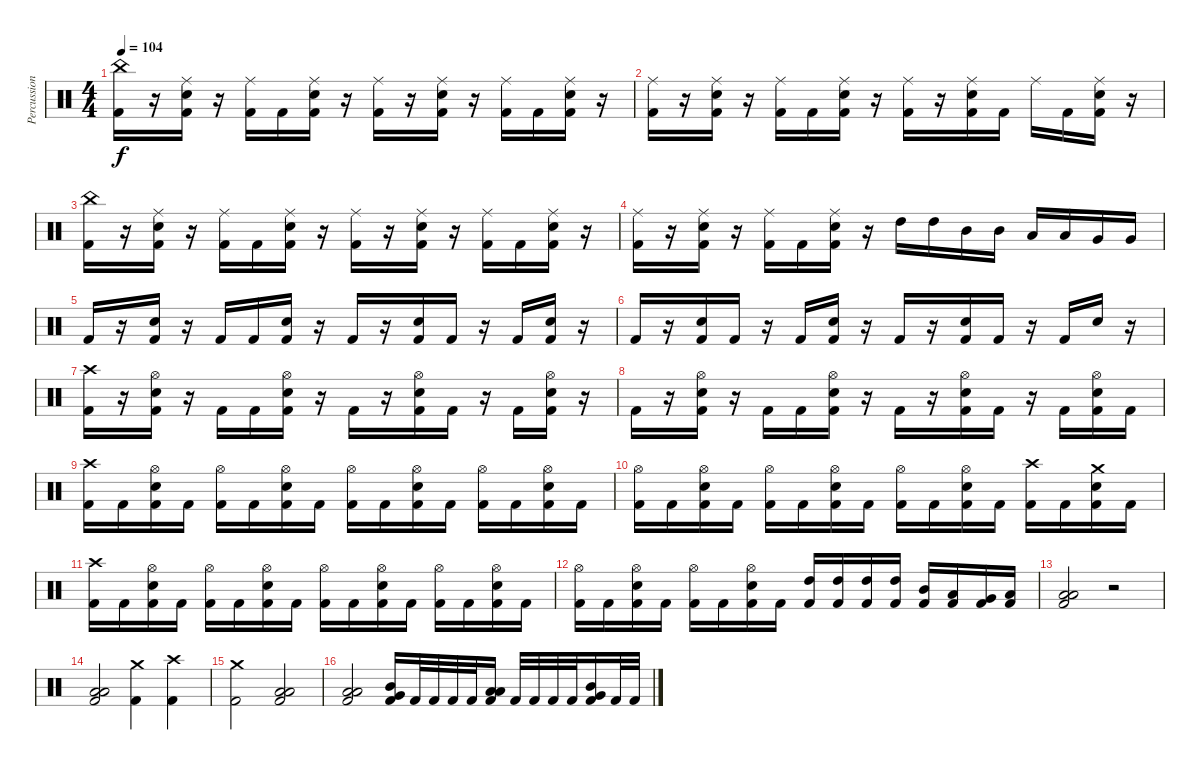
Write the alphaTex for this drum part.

\track ("Percussion" "Percussion") {instrument percussion}
\staff {score}
\articulation defaults
\ts (4 4)
\tempo 104
\clef neutral
\ks c
("China (hit)" "Kick (hit) 2").16{dy f} r.16 ("Ride (middle)" "Snare (hit) 2" "Kick (hit) 2").16 r.16 ("Ride (middle)" "Kick (hit) 2").16 "Kick (hit) 2".16 ("Ride (middle)" "Snare (hit) 2" "Kick (hit) 2").16 r.16 ("Ride (middle)" "Kick (hit) 2").16 r.16 ("Ride (middle)" "Snare (hit) 2" "Kick (hit) 2").16 r.16 ("Ride (middle)" "Kick (hit) 2").16 "Kick (hit) 2".16 ("Ride (middle)" "Snare (hit) 2" "Kick (hit) 2").16 r.16 |
("Ride (middle)" "Kick (hit) 2").16 r.16 ("Ride (middle)" "Snare (hit) 2" "Kick (hit) 2").16 r.16 ("Ride (middle)" "Kick (hit) 2").16 "Kick (hit) 2".16 ("Ride (middle)" "Snare (hit) 2" "Kick (hit) 2").16 r.16 ("Ride (middle)" "Kick (hit) 2").16 r.16 ("Ride (middle)" "Snare (hit) 2" "Kick (hit) 2").16 "Kick (hit) 2".16 "Ride (middle)".16 "Kick (hit) 2".16 ("Ride (middle)" "Snare (hit) 2" "Kick (hit) 2").16 r.16 |
("China (hit)" "Kick (hit) 2").16 r.16 ("Ride (middle)" "Snare (hit) 2" "Kick (hit) 2").16 r.16 ("Ride (middle)" "Kick (hit) 2").16 "Kick (hit) 2".16 ("Ride (middle)" "Snare (hit) 2" "Kick (hit) 2").16 r.16 ("Ride (middle)" "Kick (hit) 2").16 r.16 ("Ride (middle)" "Snare (hit) 2" "Kick (hit) 2").16 r.16 ("Ride (middle)" "Kick (hit) 2").16 "Kick (hit) 2".16 ("Ride (middle)" "Snare (hit) 2" "Kick (hit) 2").16 r.16 |
("Ride (middle)" "Kick (hit) 2").16 r.16 ("Ride (middle)" "Snare (hit) 2" "Kick (hit) 2").16 r.16 ("Ride (middle)" "Kick (hit) 2").16 "Kick (hit) 2".16 ("Ride (middle)" "Snare (hit) 2" "Kick (hit) 2").16 r.16 "High Tom (hit)".16 "High Tom (hit)".16 "Mid Tom (hit)".16 "Mid Tom (hit)".16 "Low Tom (hit)".16 "Low Tom (hit)".16 "Very Low Tom (hit)".16 "Very Low Tom (hit)".16 |
"Kick (hit) 2".16 r.16 ("Hand Clap (hit)" "Kick (hit) 2").16 r.16 "Kick (hit) 2".16 "Kick (hit) 2".16 ("Hand Clap (hit)" "Kick (hit) 2").16 r.16 "Kick (hit) 2".16 r.16 ("Hand Clap (hit)" "Kick (hit) 2").16 "Kick (hit) 2".16 r.16 "Kick (hit) 2".16 ("Hand Clap (hit)" "Kick (hit) 2").16 r.16 |
"Kick (hit) 2".16 r.16 ("Hand Clap (hit)" "Kick (hit) 2").16 "Kick (hit) 2".16 r.16 "Kick (hit) 2".16 ("Hand Clap (hit)" "Kick (hit) 2").16 r.16 "Kick (hit) 2".16 r.16 ("Hand Clap (hit)" "Kick (hit) 2").16 "Kick (hit) 2".16 r.16 "Kick (hit) 2".16 "Hand Clap (hit)".16 r.16 |
("Crash high (hit)" "Kick (hit) 2").16 r.16 ("Hi-Hat (open)" "Snare (hit) 2" "Kick (hit) 2").16 r.16 "Kick (hit) 2".16 "Kick (hit) 2".16 ("Hi-Hat (open)" "Snare (hit) 2" "Kick (hit) 2").16 r.16 "Kick (hit) 2".16 r.16 ("Hi-Hat (open)" "Snare (hit) 2" "Kick (hit) 2").16 "Kick (hit) 2".16 r.16 "Kick (hit) 2".16 ("Hi-Hat (open)" "Snare (hit) 2" "Kick (hit) 2").16 r.16 |
"Kick (hit) 2".16 r.16 ("Hi-Hat (open)" "Snare (hit) 2" "Kick (hit) 2").16 r.16 "Kick (hit) 2".16 "Kick (hit) 2".16 ("Hi-Hat (open)" "Snare (hit) 2" "Kick (hit) 2").16 r.16 "Kick (hit) 2".16 r.16 ("Hi-Hat (open)" "Snare (hit) 2" "Kick (hit) 2").16 "Kick (hit) 2".16 r.16 "Kick (hit) 2".16 ("Hi-Hat (open)" "Snare (hit) 2" "Kick (hit) 2").16 "Kick (hit) 2".16 |
("Crash high (hit)" "Kick (hit) 2").16 "Kick (hit) 2".16 ("Hi-Hat (open)" "Snare (hit) 2" "Kick (hit) 2").16 "Kick (hit) 2".16 ("Hi-Hat (open)" "Kick (hit) 2").16 "Kick (hit) 2".16 ("Hi-Hat (open)" "Snare (hit) 2" "Kick (hit) 2").16 "Kick (hit) 2".16 ("Hi-Hat (open)" "Kick (hit) 2").16 "Kick (hit) 2".16 ("Hi-Hat (open)" "Snare (hit) 2" "Kick (hit) 2").16 "Kick (hit) 2".16 ("Hi-Hat (open)" "Kick (hit) 2").16 "Kick (hit) 2".16 ("Hi-Hat (open)" "Snare (hit) 2" "Kick (hit) 2").16 "Kick (hit) 2".16 |
("Hi-Hat (open)" "Kick (hit) 2").16 "Kick (hit) 2".16 ("Hi-Hat (open)" "Snare (hit) 2" "Kick (hit) 2").16 "Kick (hit) 2".16 ("Hi-Hat (open)" "Kick (hit) 2").16 "Kick (hit) 2".16 ("Hi-Hat (open)" "Snare (hit) 2" "Kick (hit) 2").16 "Kick (hit) 2".16 ("Hi-Hat (open)" "Kick (hit) 2").16 "Kick (hit) 2".16 ("Hi-Hat (open)" "Snare (hit) 2" "Kick (hit) 2").16 "Kick (hit) 2".16 ("Crash high (hit)" "Kick (hit) 2").16 "Kick (hit) 2".16 ("Crash medium (hit)" "Snare (hit) 2" "Kick (hit) 2").16 "Kick (hit) 2".16 |
("Crash high (hit)" "Kick (hit) 2").16 "Kick (hit) 2".16 ("Hi-Hat (open)" "Snare (hit) 2" "Kick (hit) 2").16 "Kick (hit) 2".16 ("Hi-Hat (open)" "Kick (hit) 2").16 "Kick (hit) 2".16 ("Hi-Hat (open)" "Snare (hit) 2" "Kick (hit) 2").16 "Kick (hit) 2".16 ("Hi-Hat (open)" "Kick (hit) 2").16 "Kick (hit) 2".16 ("Hi-Hat (open)" "Snare (hit) 2" "Kick (hit) 2").16 "Kick (hit) 2".16 ("Hi-Hat (open)" "Kick (hit) 2").16 "Kick (hit) 2".16 ("Hi-Hat (open)" "Snare (hit) 2" "Kick (hit) 2").16 "Kick (hit) 2".16 |
("Hi-Hat (open)" "Kick (hit) 2").16 "Kick (hit) 2".16 ("Hi-Hat (open)" "Snare (hit) 2" "Kick (hit) 2").16 "Kick (hit) 2".16 ("Hi-Hat (open)" "Kick (hit) 2").16 "Kick (hit) 2".16 ("Hi-Hat (open)" "Snare (hit) 2" "Kick (hit) 2").16 "Kick (hit) 2".16 ("High Tom (hit)" "Kick (hit) 2").16 ("High Tom (hit)" "Kick (hit) 2").16 ("High Tom (hit)" "Kick (hit) 2").16 ("High Tom (hit)" "Kick (hit) 2").16 ("Mid Tom (hit)" "Kick (hit) 2").16 ("Low Tom (hit)" "Kick (hit) 2").16 ("Very Low Tom (hit)" "Kick (hit) 2").16 ("Low Floor Tom (hit)" "Kick (hit) 2").16 |
("Low Tom (hit)" "Low Floor Tom (hit)" "Kick (hit) 2").2 r.2 |
("Low Tom (hit)" "Low Floor Tom (hit)" "Kick (hit) 2").2 ("Crash medium (hit)" "Kick (hit) 2").4 ("Crash high (hit)" "Kick (hit) 2").4 |
("Crash medium (hit)" "Kick (hit) 2").2 ("Low Tom (hit)" "Low Floor Tom (hit)" "Kick (hit) 2").2 |
("Low Tom (hit)" "Low Floor Tom (hit)" "Kick (hit) 2").2 ("Mid Tom (hit)" "Very Low Tom (hit)" "Kick (hit) 2").16 "Kick (hit) 2".32 "Kick (hit) 2".32 "Kick (hit) 2".32 "Kick (hit) 2".32 ("Low Tom (hit)" "Low Floor Tom (hit)" "Kick (hit) 2").16 "Kick (hit) 2".32 "Kick (hit) 2".32 "Kick (hit) 2".32 "Kick (hit) 2".32 ("Mid Tom (hit)" "Very Low Tom (hit)" "Kick (hit) 2").16 "Kick (hit) 2".32 "Kick (hit) 2".32
